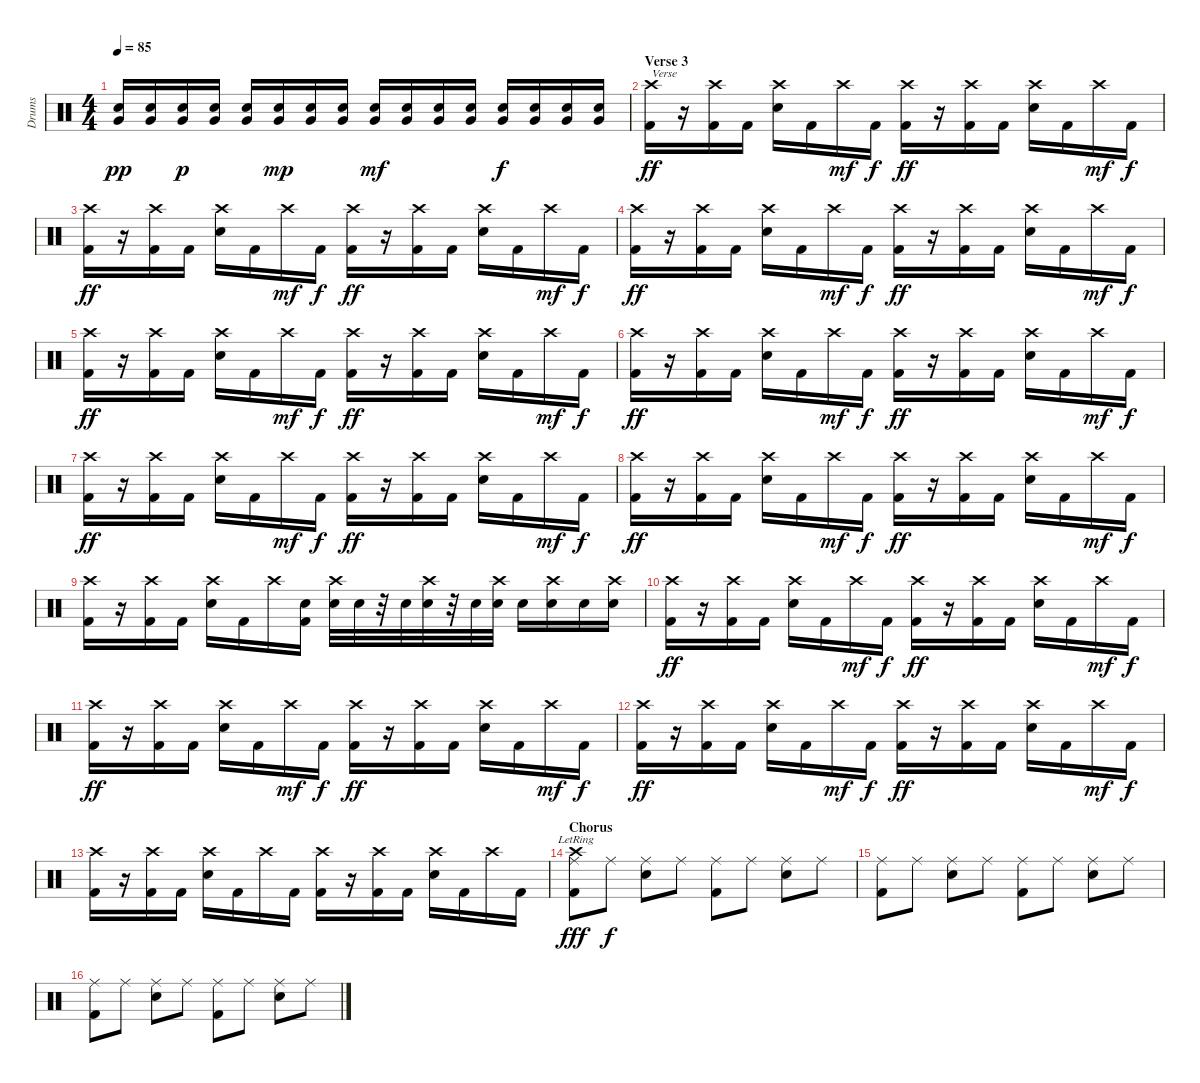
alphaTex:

\track ("Drums" "Drums") {instrument percussion}
\staff {score}
\articulation defaults
\ts (4 4)
\tempo 85
\clef neutral
\ks c
("Very Low Tom (hit)" "Snare (hit) 2").16{dy pp} ("Very Low Tom (hit)" "Snare (hit) 2").16 ("Very Low Tom (hit)" "Snare (hit) 2").16{dy p} ("Very Low Tom (hit)" "Snare (hit) 2").16 ("Very Low Tom (hit)" "Snare (hit) 2").16 ("Very Low Tom (hit)" "Snare (hit) 2").16{dy mp} ("Very Low Tom (hit)" "Snare (hit) 2").16 ("Very Low Tom (hit)" "Snare (hit) 2").16 ("Very Low Tom (hit)" "Snare (hit) 2").16{dy mf} ("Very Low Tom (hit)" "Snare (hit) 2").16 ("Very Low Tom (hit)" "Snare (hit) 2").16 ("Very Low Tom (hit)" "Snare (hit) 2").16 ("Very Low Tom (hit)" "Snare (hit) 2").16{dy f} ("Very Low Tom (hit)" "Snare (hit) 2").16 ("Very Low Tom (hit)" "Snare (hit) 2").16 ("Very Low Tom (hit)" "Snare (hit) 2").16 |
\section ("" "Verse 3")
("Crash high (hit)" "Kick (hit) 2").16{txt "Verse" dy ff} r.16 ("Crash high (hit)" "Kick (hit) 2").16 "Kick (hit) 2".16 ("Crash high (hit)" "Snare (hit) 2").16 "Kick (hit) 2".16 "Crash high (hit)".16{dy mf} "Kick (hit) 2".16{dy f} ("Crash high (hit)" "Kick (hit) 2").16{dy ff} r.16 ("Crash high (hit)" "Kick (hit) 2").16 "Kick (hit) 2".16 ("Crash high (hit)" "Snare (hit) 2").16 "Kick (hit) 2".16 "Crash high (hit)".16{dy mf} "Kick (hit) 2".16{dy f} |
("Crash high (hit)" "Kick (hit) 2").16{dy ff} r.16 ("Crash high (hit)" "Kick (hit) 2").16 "Kick (hit) 2".16 ("Crash high (hit)" "Snare (hit) 2").16 "Kick (hit) 2".16 "Crash high (hit)".16{dy mf} "Kick (hit) 2".16{dy f} ("Crash high (hit)" "Kick (hit) 2").16{dy ff} r.16 ("Crash high (hit)" "Kick (hit) 2").16 "Kick (hit) 2".16 ("Crash high (hit)" "Snare (hit) 2").16 "Kick (hit) 2".16 "Crash high (hit)".16{dy mf} "Kick (hit) 2".16{dy f} |
("Crash high (hit)" "Kick (hit) 2").16{dy ff} r.16 ("Crash high (hit)" "Kick (hit) 2").16 "Kick (hit) 2".16 ("Crash high (hit)" "Snare (hit) 2").16 "Kick (hit) 2".16 "Crash high (hit)".16{dy mf} "Kick (hit) 2".16{dy f} ("Crash high (hit)" "Kick (hit) 2").16{dy ff} r.16 ("Crash high (hit)" "Kick (hit) 2").16 "Kick (hit) 2".16 ("Crash high (hit)" "Snare (hit) 2").16 "Kick (hit) 2".16 "Crash high (hit)".16{dy mf} "Kick (hit) 2".16{dy f} |
("Crash high (hit)" "Kick (hit) 2").16{dy ff} r.16 ("Crash high (hit)" "Kick (hit) 2").16 "Kick (hit) 2".16 ("Crash high (hit)" "Snare (hit) 2").16 "Kick (hit) 2".16 "Crash high (hit)".16{dy mf} "Kick (hit) 2".16{dy f} ("Crash high (hit)" "Kick (hit) 2").16{dy ff} r.16 ("Crash high (hit)" "Kick (hit) 2").16 "Kick (hit) 2".16 ("Crash high (hit)" "Snare (hit) 2").16 "Kick (hit) 2".16 "Crash high (hit)".16{dy mf} "Kick (hit) 2".16{dy f} |
("Crash high (hit)" "Kick (hit) 2").16{dy ff} r.16 ("Crash high (hit)" "Kick (hit) 2").16 "Kick (hit) 2".16 ("Crash high (hit)" "Snare (hit) 2").16 "Kick (hit) 2".16 "Crash high (hit)".16{dy mf} "Kick (hit) 2".16{dy f} ("Crash high (hit)" "Kick (hit) 2").16{dy ff} r.16 ("Crash high (hit)" "Kick (hit) 2").16 "Kick (hit) 2".16 ("Crash high (hit)" "Snare (hit) 2").16 "Kick (hit) 2".16 "Crash high (hit)".16{dy mf} "Kick (hit) 2".16{dy f} |
("Crash high (hit)" "Kick (hit) 2").16{dy ff} r.16 ("Crash high (hit)" "Kick (hit) 2").16 "Kick (hit) 2".16 ("Crash high (hit)" "Snare (hit) 2").16 "Kick (hit) 2".16 "Crash high (hit)".16{dy mf} "Kick (hit) 2".16{dy f} ("Crash high (hit)" "Kick (hit) 2").16{dy ff} r.16 ("Crash high (hit)" "Kick (hit) 2").16 "Kick (hit) 2".16 ("Crash high (hit)" "Snare (hit) 2").16 "Kick (hit) 2".16 "Crash high (hit)".16{dy mf} "Kick (hit) 2".16{dy f} |
("Crash high (hit)" "Kick (hit) 2").16{dy ff} r.16 ("Crash high (hit)" "Kick (hit) 2").16 "Kick (hit) 2".16 ("Crash high (hit)" "Snare (hit) 2").16 "Kick (hit) 2".16 "Crash high (hit)".16{dy mf} "Kick (hit) 2".16{dy f} ("Crash high (hit)" "Kick (hit) 2").16{dy ff} r.16 ("Crash high (hit)" "Kick (hit) 2").16 "Kick (hit) 2".16 ("Crash high (hit)" "Snare (hit) 2").16 "Kick (hit) 2".16 "Crash high (hit)".16{dy mf} "Kick (hit) 2".16{dy f} |
("Crash high (hit)" "Kick (hit) 2").16 r.16 ("Crash high (hit)" "Kick (hit) 2").16 "Kick (hit) 2".16 ("Crash high (hit)" "Snare (hit) 2").16 "Kick (hit) 2".16 "Crash high (hit)".16 ("Snare (hit) 2" "Kick (hit) 2").16 ("Crash high (hit)" "Snare (hit) 2").32 "Snare (hit) 2".32 r.32 "Snare (hit) 2".32 ("Crash high (hit)" "Snare (hit) 2").32 r.32 "Snare (hit) 2".32 ("Crash high (hit)" "Snare (hit) 2").32 "Snare (hit) 2".16 ("Crash high (hit)" "Snare (hit) 2").16 "Snare (hit) 2".16 ("Crash high (hit)" "Snare (hit) 2").16 |
("Crash high (hit)" "Kick (hit) 2").16{dy ff} r.16 ("Crash high (hit)" "Kick (hit) 2").16 "Kick (hit) 2".16 ("Crash high (hit)" "Snare (hit) 2").16 "Kick (hit) 2".16 "Crash high (hit)".16{dy mf} "Kick (hit) 2".16{dy f} ("Crash high (hit)" "Kick (hit) 2").16{dy ff} r.16 ("Crash high (hit)" "Kick (hit) 2").16 "Kick (hit) 2".16 ("Crash high (hit)" "Snare (hit) 2").16 "Kick (hit) 2".16 "Crash high (hit)".16{dy mf} "Kick (hit) 2".16{dy f} |
("Crash high (hit)" "Kick (hit) 2").16{dy ff} r.16 ("Crash high (hit)" "Kick (hit) 2").16 "Kick (hit) 2".16 ("Crash high (hit)" "Snare (hit) 2").16 "Kick (hit) 2".16 "Crash high (hit)".16{dy mf} "Kick (hit) 2".16{dy f} ("Crash high (hit)" "Kick (hit) 2").16{dy ff} r.16 ("Crash high (hit)" "Kick (hit) 2").16 "Kick (hit) 2".16 ("Crash high (hit)" "Snare (hit) 2").16 "Kick (hit) 2".16 "Crash high (hit)".16{dy mf} "Kick (hit) 2".16{dy f} |
("Crash high (hit)" "Kick (hit) 2").16{dy ff} r.16 ("Crash high (hit)" "Kick (hit) 2").16 "Kick (hit) 2".16 ("Crash high (hit)" "Snare (hit) 2").16 "Kick (hit) 2".16 "Crash high (hit)".16{dy mf} "Kick (hit) 2".16{dy f} ("Crash high (hit)" "Kick (hit) 2").16{dy ff} r.16 ("Crash high (hit)" "Kick (hit) 2").16 "Kick (hit) 2".16 ("Crash high (hit)" "Snare (hit) 2").16 "Kick (hit) 2".16 "Crash high (hit)".16{dy mf} "Kick (hit) 2".16{dy f} |
("Crash high (hit)" "Kick (hit) 2").16 r.16 ("Crash high (hit)" "Kick (hit) 2").16 "Kick (hit) 2".16 ("Crash high (hit)" "Snare (hit) 2").16 "Kick (hit) 2".16 "Crash high (hit)".16 "Kick (hit) 2".16 ("Crash high (hit)" "Kick (hit) 2").16 r.16 ("Crash high (hit)" "Kick (hit) 2").16 "Kick (hit) 2".16 ("Crash high (hit)" "Snare (hit) 2").16 "Kick (hit) 2".16 "Crash high (hit)".16 "Kick (hit) 2".16 |
\section ("" "Chorus")
("Ride (middle)" "Crash high (hit)"{lr} "Kick (hit) 2").8{dy fff} "Ride (middle)".8{dy f} ("Ride (middle)" "Snare (hit) 2").8 "Ride (middle)".8 ("Ride (middle)" "Kick (hit) 2").8 "Ride (middle)".8 ("Ride (middle)" "Snare (hit) 2").8 "Ride (middle)".8 |
("Ride (middle)" "Kick (hit) 2").8 "Ride (middle)".8 ("Ride (middle)" "Snare (hit) 2").8 "Ride (middle)".8 ("Ride (middle)" "Kick (hit) 2").8 "Ride (middle)".8 ("Ride (middle)" "Snare (hit) 2").8 "Ride (middle)".8 |
("Ride (middle)" "Kick (hit) 2").8 "Ride (middle)".8 ("Ride (middle)" "Snare (hit) 2").8 "Ride (middle)".8 ("Ride (middle)" "Kick (hit) 2").8 "Ride (middle)".8 ("Ride (middle)" "Snare (hit) 2").8 "Ride (middle)".8
